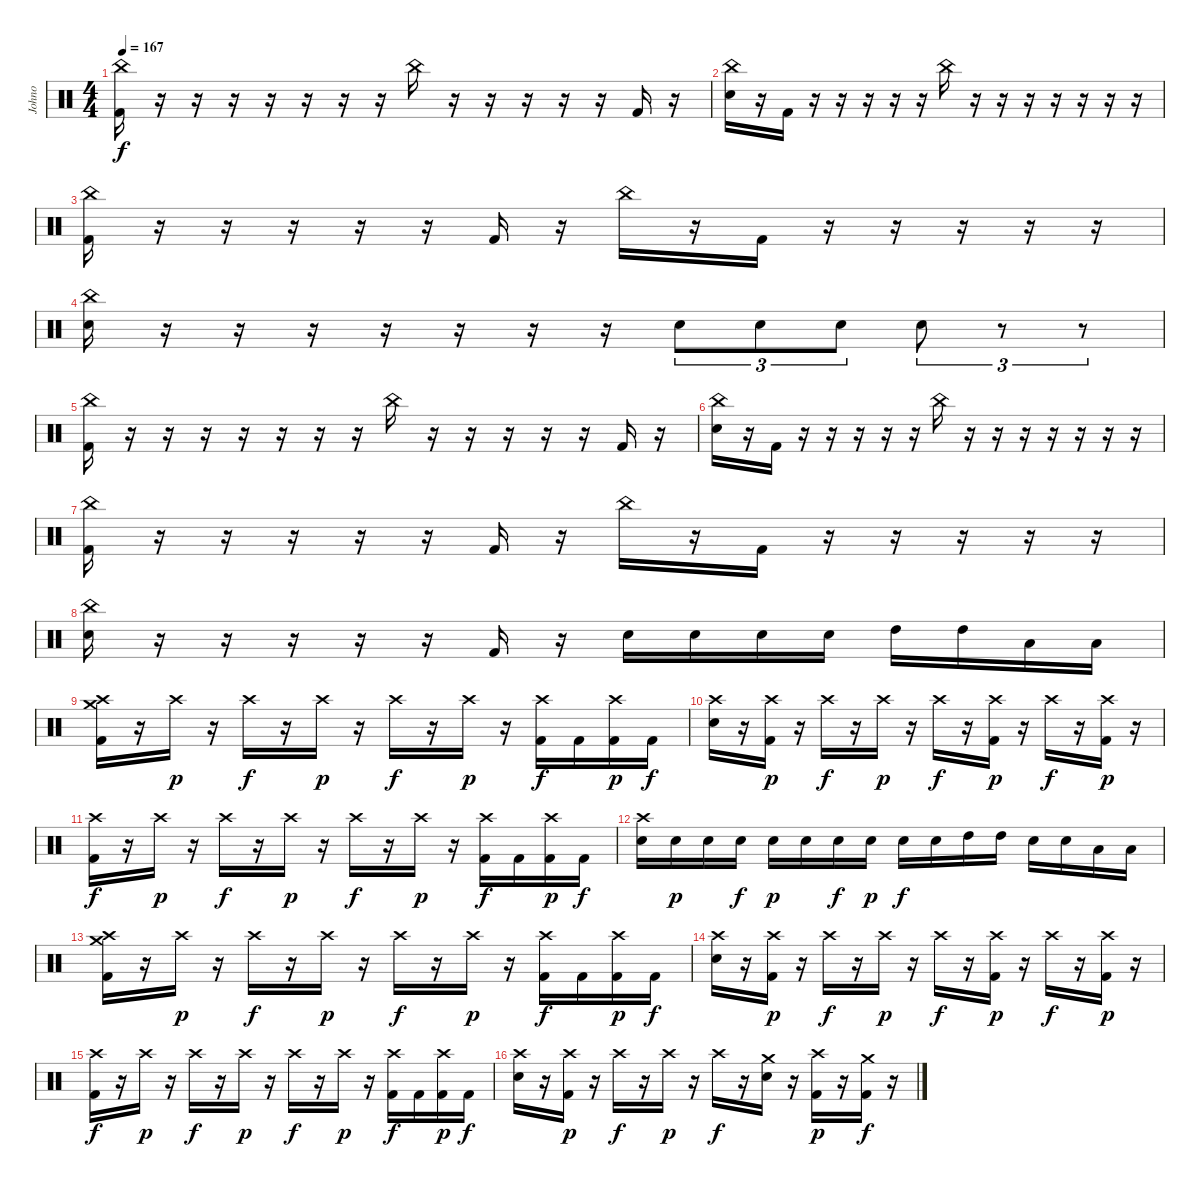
\track ("Johno" "Johno") {instrument percussion}
\staff {score}
\articulation defaults
\ts (4 4)
\tempo 167
\clef neutral
\ks c
("China (hit)" "Kick (hit) 2").16{dy f} r.16 r.16 r.16 r.16 r.16 r.16 r.16 "China (hit)".16 r.16 r.16 r.16 r.16 r.16 "Kick (hit) 2".16 r.16 |
("China (hit)" "Electric Snare (hit)").16 r.16 "Kick (hit) 2".16 r.16 r.16 r.16 r.16 r.16 "China (hit)".16 r.16 r.16 r.16 r.16 r.16 r.16 r.16 |
("China (hit)" "Kick (hit) 2").16 r.16 r.16 r.16 r.16 r.16 "Kick (hit) 2".16 r.16 "China (hit)".16 r.16 "Kick (hit) 2".16 r.16 r.16 r.16 r.16 r.16 |
("China (hit)" "Electric Snare (hit)").16 r.16 r.16 r.16 r.16 r.16 r.16 r.16 "Electric Snare (hit)".8{tu (3 2)} "Electric Snare (hit)".8{tu (3 2)} "Electric Snare (hit)".8{tu (3 2)} "Electric Snare (hit)".8{tu (3 2)} r.8{tu (3 2)} r.8{tu (3 2)} |
("China (hit)" "Kick (hit) 2").16 r.16 r.16 r.16 r.16 r.16 r.16 r.16 "China (hit)".16 r.16 r.16 r.16 r.16 r.16 "Kick (hit) 2".16 r.16 |
("China (hit)" "Electric Snare (hit)").16 r.16 "Kick (hit) 2".16 r.16 r.16 r.16 r.16 r.16 "China (hit)".16 r.16 r.16 r.16 r.16 r.16 r.16 r.16 |
("China (hit)" "Kick (hit) 2").16 r.16 r.16 r.16 r.16 r.16 "Kick (hit) 2".16 r.16 "China (hit)".16 r.16 "Kick (hit) 2".16 r.16 r.16 r.16 r.16 r.16 |
("China (hit)" "Electric Snare (hit)").16 r.16 r.16 r.16 r.16 r.16 "Kick (hit) 2".16 r.16 "Electric Snare (hit)".16 "Electric Snare (hit)".16 "Electric Snare (hit)".16 "Electric Snare (hit)".16 "High Tom (hit)".16 "High Tom (hit)".16 "Low Floor Tom (hit)".16 "Low Floor Tom (hit)".16 |
("Crash medium (hit)" "Crash high (hit)" "Kick (hit) 2").16 r.16 "Crash high (hit)".16{dy p} r.16 "Crash high (hit)".16{dy f} r.16 "Crash high (hit)".16{dy p} r.16 "Crash high (hit)".16{dy f} r.16 "Crash high (hit)".16{dy p} r.16 ("Crash high (hit)" "Kick (hit) 2").16{dy f} "Kick (hit) 2".16 ("Crash high (hit)" "Kick (hit) 2").16{dy p} "Kick (hit) 2".16{dy f} |
("Crash high (hit)" "Electric Snare (hit)").16 r.16 ("Crash high (hit)" "Kick (hit) 2").16{dy p} r.16 "Crash high (hit)".16{dy f} r.16 "Crash high (hit)".16{dy p} r.16 "Crash high (hit)".16{dy f} r.16 ("Crash high (hit)" "Kick (hit) 2").16{dy p} r.16 "Crash high (hit)".16{dy f} r.16 ("Crash high (hit)" "Kick (hit) 2").16{dy p} r.16 |
("Crash high (hit)" "Kick (hit) 2").16{dy f} r.16 "Crash high (hit)".16{dy p} r.16 "Crash high (hit)".16{dy f} r.16 "Crash high (hit)".16{dy p} r.16 "Crash high (hit)".16{dy f} r.16 "Crash high (hit)".16{dy p} r.16 ("Crash high (hit)" "Kick (hit) 2").16{dy f} "Kick (hit) 2".16 ("Crash high (hit)" "Kick (hit) 2").16{dy p} "Kick (hit) 2".16{dy f} |
("Crash high (hit)" "Electric Snare (hit)").16 "Electric Snare (hit)".16{dy p} "Electric Snare (hit)".16 "Electric Snare (hit)".16{dy f} "Electric Snare (hit)".16{dy p} "Electric Snare (hit)".16 "Electric Snare (hit)".16{dy f} "Electric Snare (hit)".16{dy p} "Electric Snare (hit)".16{dy f} "Electric Snare (hit)".16 "High Tom (hit)".16 "High Tom (hit)".16 "Electric Snare (hit)".16 "Electric Snare (hit)".16 "Low Floor Tom (hit)".16 "Low Floor Tom (hit)".16 |
("Crash medium (hit)" "Crash high (hit)" "Kick (hit) 2").16 r.16 "Crash high (hit)".16{dy p} r.16 "Crash high (hit)".16{dy f} r.16 "Crash high (hit)".16{dy p} r.16 "Crash high (hit)".16{dy f} r.16 "Crash high (hit)".16{dy p} r.16 ("Crash high (hit)" "Kick (hit) 2").16{dy f} "Kick (hit) 2".16 ("Crash high (hit)" "Kick (hit) 2").16{dy p} "Kick (hit) 2".16{dy f} |
("Crash high (hit)" "Electric Snare (hit)").16 r.16 ("Crash high (hit)" "Kick (hit) 2").16{dy p} r.16 "Crash high (hit)".16{dy f} r.16 "Crash high (hit)".16{dy p} r.16 "Crash high (hit)".16{dy f} r.16 ("Crash high (hit)" "Kick (hit) 2").16{dy p} r.16 "Crash high (hit)".16{dy f} r.16 ("Crash high (hit)" "Kick (hit) 2").16{dy p} r.16 |
("Crash high (hit)" "Kick (hit) 2").16{dy f} r.16 "Crash high (hit)".16{dy p} r.16 "Crash high (hit)".16{dy f} r.16 "Crash high (hit)".16{dy p} r.16 "Crash high (hit)".16{dy f} r.16 "Crash high (hit)".16{dy p} r.16 ("Crash high (hit)" "Kick (hit) 2").16{dy f} "Kick (hit) 2".16 ("Crash high (hit)" "Kick (hit) 2").16{dy p} "Kick (hit) 2".16{dy f} |
("Crash high (hit)" "Electric Snare (hit)").16 r.16 ("Crash high (hit)" "Kick (hit) 2").16{dy p} r.16 "Crash high (hit)".16{dy f} r.16 "Crash high (hit)".16{dy p} r.16 "Crash high (hit)".16{dy f} r.16 ("Crash medium (hit)" "Electric Snare (hit)").16 r.16 ("Crash high (hit)" "Kick (hit) 2").16{dy p} r.16 ("Crash medium (hit)" "Kick (hit) 2").16{dy f} r.16
